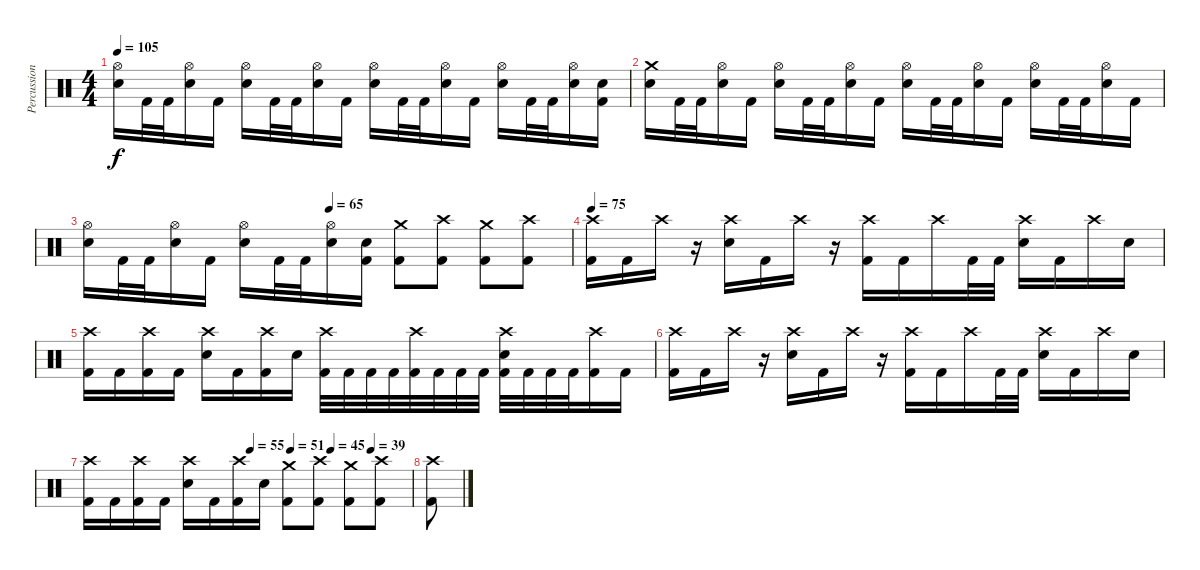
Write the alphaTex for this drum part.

\track ("Percussion" "Percussion") {instrument percussion}
\staff {score}
\articulation defaults
\ts (4 4)
\tempo 105
\clef neutral
\ks c
("Hi-Hat (open)" "Electric Snare (hit)").16{dy f} "Kick (hit) 2".32 "Kick (hit) 2".32 ("Hi-Hat (open)" "Electric Snare (hit)").16 "Kick (hit) 2".16 ("Hi-Hat (open)" "Electric Snare (hit)").16 "Kick (hit) 2".32 "Kick (hit) 2".32 ("Hi-Hat (open)" "Electric Snare (hit)").16 "Kick (hit) 2".16 ("Hi-Hat (open)" "Electric Snare (hit)").16 "Kick (hit) 2".32 "Kick (hit) 2".32 ("Hi-Hat (open)" "Electric Snare (hit)").16 "Kick (hit) 2".16 ("Hi-Hat (open)" "Electric Snare (hit)").16 "Kick (hit) 2".32 "Kick (hit) 2".32 ("Hi-Hat (open)" "Electric Snare (hit)").16 ("Electric Snare (hit)" "Kick (hit) 2").16 |
("Crash medium (hit)" "Electric Snare (hit)").16 "Kick (hit) 2".32 "Kick (hit) 2".32 ("Hi-Hat (open)" "Electric Snare (hit)").16 "Kick (hit) 2".16 ("Hi-Hat (open)" "Electric Snare (hit)").16 "Kick (hit) 2".32 "Kick (hit) 2".32 ("Hi-Hat (open)" "Electric Snare (hit)").16 "Kick (hit) 2".16 ("Hi-Hat (open)" "Electric Snare (hit)").16 "Kick (hit) 2".32 "Kick (hit) 2".32 ("Hi-Hat (open)" "Electric Snare (hit)").16 "Kick (hit) 2".16 ("Hi-Hat (open)" "Electric Snare (hit)").16 "Kick (hit) 2".32 "Kick (hit) 2".32 ("Hi-Hat (open)" "Electric Snare (hit)").16 "Kick (hit) 2".16 |
\tempo (65 0.5)
("Hi-Hat (open)" "Electric Snare (hit)").16 "Kick (hit) 2".32 "Kick (hit) 2".32 ("Hi-Hat (open)" "Electric Snare (hit)").16 "Kick (hit) 2".16 ("Hi-Hat (open)" "Electric Snare (hit)").16 "Kick (hit) 2".32 "Kick (hit) 2".32 ("Hi-Hat (open)" "Electric Snare (hit)").16 ("Electric Snare (hit)" "Kick (hit) 2").16 ("Crash medium (hit)" "Kick (hit) 2").8 ("Crash high (hit)" "Kick (hit) 2").8 ("Crash medium (hit)" "Kick (hit) 2").8 ("Crash high (hit)" "Kick (hit) 2").8 |
\tempo 75
("Crash high (hit)" "Kick (hit) 2").16 "Kick (hit) 2".16 "Crash high (hit)".16 r.16 ("Crash high (hit)" "Electric Snare (hit)").16 "Kick (hit) 2".16 "Crash high (hit)".16 r.16 ("Crash high (hit)" "Kick (hit) 2").16 "Kick (hit) 2".16 "Crash high (hit)".16 "Kick (hit) 2".32 "Kick (hit) 2".32 ("Crash high (hit)" "Electric Snare (hit)").16 "Kick (hit) 2".16 "Crash high (hit)".16 "Electric Snare (hit)".16 |
("Crash high (hit)" "Kick (hit) 2").16 "Kick (hit) 2".16 ("Crash high (hit)" "Kick (hit) 2").16 "Kick (hit) 2".16 ("Crash high (hit)" "Electric Snare (hit)").16 "Kick (hit) 2".16 ("Crash high (hit)" "Kick (hit) 2").16 "Electric Snare (hit)".16 ("Crash high (hit)" "Kick (hit) 2").32 "Kick (hit) 2".32 "Kick (hit) 2".32 "Kick (hit) 2".32 ("Crash high (hit)" "Kick (hit) 2").32 "Kick (hit) 2".32 "Kick (hit) 2".32 "Kick (hit) 2".32 ("Crash high (hit)" "Electric Snare (hit)" "Kick (hit) 2").32 "Kick (hit) 2".32 "Kick (hit) 2".32 "Kick (hit) 2".32 ("Crash high (hit)" "Kick (hit) 2").16 "Kick (hit) 2".16 |
("Crash high (hit)" "Kick (hit) 2").16 "Kick (hit) 2".16 "Crash high (hit)".16 r.16 ("Crash high (hit)" "Electric Snare (hit)").16 "Kick (hit) 2".16 "Crash high (hit)".16 r.16 ("Crash high (hit)" "Kick (hit) 2").16 "Kick (hit) 2".16 "Crash high (hit)".16 "Kick (hit) 2".32 "Kick (hit) 2".32 ("Crash high (hit)" "Electric Snare (hit)").16 "Kick (hit) 2".16 "Crash high (hit)".16 "Electric Snare (hit)".16 |
\tempo (55 0.5)
\tempo (51 0.625)
\tempo (45 0.75)
\tempo (39 0.875)
("Crash high (hit)" "Kick (hit) 2").16 "Kick (hit) 2".16 ("Crash high (hit)" "Kick (hit) 2").16 "Kick (hit) 2".16 ("Crash high (hit)" "Electric Snare (hit)").16 "Kick (hit) 2".16 ("Crash high (hit)" "Kick (hit) 2").16 "Electric Snare (hit)".16 ("Crash medium (hit)" "Kick (hit) 2").8 ("Crash high (hit)" "Kick (hit) 2").8 ("Crash medium (hit)" "Kick (hit) 2").8 ("Crash high (hit)" "Kick (hit) 2").8 |
("Crash high (hit)" "Kick (hit) 2").8
